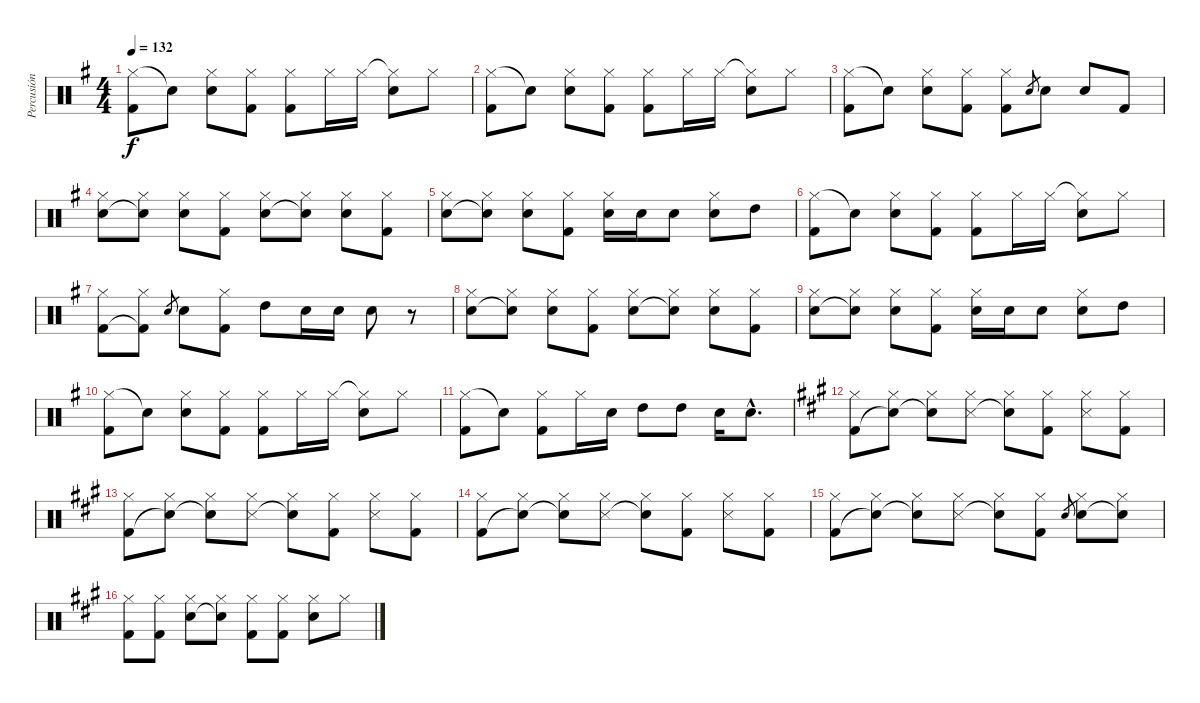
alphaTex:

\track ("Percusión" "Percusión") {instrument percussion}
\staff {score}
\articulation defaults
\ts (4 4)
\tempo 132
\clef neutral
\ks eminor
("Hi-Hat (closed)" "Kick (hit) 2").8{dy f} "Snare (hit)"{t}.8 ("Hi-Hat (closed)" "Electric Snare (hit)").8 ("Hi-Hat (closed)" "Kick (hit) 2").8 ("Hi-Hat (closed)" "Kick (hit) 2").8 "Hi-Hat (closed)".16 "Hi-Hat (closed)".16 ("Hi-Hat (closed)"{t} "Electric Snare (hit)").8 "Hi-Hat (closed)".8 |
("Hi-Hat (closed)" "Kick (hit) 2").8 "Snare (hit)"{t}.8 ("Hi-Hat (closed)" "Electric Snare (hit)").8 ("Hi-Hat (closed)" "Kick (hit) 2").8 ("Hi-Hat (closed)" "Kick (hit) 2").8 "Hi-Hat (closed)".16 "Hi-Hat (closed)".16 ("Hi-Hat (closed)"{t} "Electric Snare (hit)").8 "Hi-Hat (closed)".8 |
("Hi-Hat (closed)" "Kick (hit) 2").8 "Snare (hit)"{t}.8 ("Hi-Hat (closed)" "Electric Snare (hit)").8 ("Hi-Hat (closed)" "Kick (hit) 2").8 ("Hi-Hat (closed)" "Kick (hit) 2").8 "Electric Snare (hit)".8{gr} "Electric Snare (hit)".8 "Electric Snare (hit)".8 "Kick (hit) 2".8 |
("Hi-Hat (closed)" "Electric Snare (hit)").8 ("Hi-Hat (closed)" "Snare (hit)"{t}).8 ("Hi-Hat (closed)" "Electric Snare (hit)").8 ("Hi-Hat (closed)" "Kick (hit) 2").8 ("Hi-Hat (closed)" "Electric Snare (hit)").8 ("Hi-Hat (closed)" "Snare (hit)"{t}).8 ("Hi-Hat (closed)" "Electric Snare (hit)").8 ("Hi-Hat (closed)" "Kick (hit) 2").8 |
("Hi-Hat (closed)" "Electric Snare (hit)").8 ("Hi-Hat (closed)" "Snare (hit)"{t}).8 ("Hi-Hat (closed)" "Electric Snare (hit)").8 ("Hi-Hat (closed)" "Kick (hit) 2").8 ("Hi-Hat (closed)" "Electric Snare (hit)").16 "Electric Snare (hit)".16 "Electric Snare (hit)".8 ("Hi-Hat (closed)" "Electric Snare (hit)").8 "High Tom (hit)".8 |
("Hi-Hat (closed)" "Kick (hit) 2").8 "Snare (hit)"{t}.8 ("Hi-Hat (closed)" "Electric Snare (hit)").8 ("Hi-Hat (closed)" "Kick (hit) 2").8 ("Hi-Hat (closed)" "Kick (hit) 2").8 "Hi-Hat (closed)".16 "Hi-Hat (closed)".16 ("Hi-Hat (closed)"{t} "Electric Snare (hit)").8 "Hi-Hat (closed)".8 |
("Hi-Hat (closed)" "Kick (hit) 2").8 ("Hi-Hat (closed)" "Kick (hit) 2"{t}).8 "Electric Snare (hit)".8{gr} "Electric Snare (hit)".8 ("Hi-Hat (closed)" "Kick (hit) 2").8 "High Tom (hit)".8 "Electric Snare (hit)".16 "Electric Snare (hit)".16 "Electric Snare (hit)".8 r.8 |
("Hi-Hat (closed)" "Electric Snare (hit)").8 ("Hi-Hat (closed)" "Snare (hit)"{t}).8 ("Hi-Hat (closed)" "Electric Snare (hit)").8 ("Hi-Hat (closed)" "Kick (hit) 2").8 ("Hi-Hat (closed)" "Electric Snare (hit)").8 ("Hi-Hat (closed)" "Snare (hit)"{t}).8 ("Hi-Hat (closed)" "Electric Snare (hit)").8 ("Hi-Hat (closed)" "Kick (hit) 2").8 |
("Hi-Hat (closed)" "Electric Snare (hit)").8 ("Hi-Hat (closed)" "Snare (hit)"{t}).8 ("Hi-Hat (closed)" "Electric Snare (hit)").8 ("Hi-Hat (closed)" "Kick (hit) 2").8 ("Hi-Hat (closed)" "Electric Snare (hit)").16 "Electric Snare (hit)".16 "Electric Snare (hit)".8 ("Hi-Hat (closed)" "Electric Snare (hit)").8 "High Tom (hit)".8 |
("Hi-Hat (closed)" "Kick (hit) 2").8 "Snare (hit)"{t}.8 ("Hi-Hat (closed)" "Electric Snare (hit)").8 ("Hi-Hat (closed)" "Kick (hit) 2").8 ("Hi-Hat (closed)" "Kick (hit) 2").8 "Hi-Hat (closed)".16 "Hi-Hat (closed)".16 ("Hi-Hat (closed)"{t} "Electric Snare (hit)").8 "Hi-Hat (closed)".8 |
("Hi-Hat (closed)" "Kick (hit) 2").8 "Snare (hit)"{t}.8 ("Hi-Hat (closed)" "Kick (hit) 2").8 "Hi-Hat (closed)".16 "Electric Snare (hit)".16 "High Tom (hit)".8 "High Tom (hit)".8 "Electric Snare (hit)".16 "Electric Snare (hit)"{hac}.8{d} |
\ks f#minor
("Hi-Hat (closed)" "Kick (hit) 2").8 ("Hi-Hat (closed)" "Snare (hit)"{t}).8 ("Hi-Hat (closed)" "Snare (hit)"{t}).8 ("Hi-Hat (closed)" "Snare (side stick) 3").8 ("Hi-Hat (closed)" "Snare (hit)"{t}).8 ("Hi-Hat (closed)" "Kick (hit) 2").8 ("Hi-Hat (closed)" "Snare (side stick) 3").8 ("Hi-Hat (closed)" "Kick (hit) 2").8 |
("Hi-Hat (closed)" "Kick (hit) 2").8 ("Hi-Hat (closed)" "Snare (hit)"{t}).8 ("Hi-Hat (closed)" "Snare (hit)"{t}).8 ("Hi-Hat (closed)" "Snare (side stick) 3").8 ("Hi-Hat (closed)" "Snare (hit)"{t}).8 ("Hi-Hat (closed)" "Kick (hit) 2").8 ("Hi-Hat (closed)" "Snare (side stick) 3").8 ("Hi-Hat (closed)" "Kick (hit) 2").8 |
("Hi-Hat (closed)" "Kick (hit) 2").8 ("Hi-Hat (closed)" "Snare (hit)"{t}).8 ("Hi-Hat (closed)" "Snare (hit)"{t}).8 ("Hi-Hat (closed)" "Snare (side stick) 3").8 ("Hi-Hat (closed)" "Snare (hit)"{t}).8 ("Hi-Hat (closed)" "Kick (hit) 2").8 ("Hi-Hat (closed)" "Snare (side stick) 3").8 ("Hi-Hat (closed)" "Kick (hit) 2").8 |
("Hi-Hat (closed)" "Kick (hit) 2").8 ("Hi-Hat (closed)" "Snare (hit)"{t}).8 ("Hi-Hat (closed)" "Snare (hit)"{t}).8 ("Hi-Hat (closed)" "Snare (side stick) 3").8 ("Hi-Hat (closed)" "Snare (hit)"{t}).8 ("Hi-Hat (closed)" "Kick (hit) 2").8 "Snare (hit) 2".8{gr} ("Hi-Hat (closed)" "Snare (hit) 2").8 ("Hi-Hat (closed)" "Snare (hit)"{t}).8 |
("Hi-Hat (closed)" "Kick (hit) 2").8 ("Hi-Hat (closed)" "Kick (hit) 2").8 ("Hi-Hat (closed)" "Electric Snare (hit)").8 ("Hi-Hat (closed)" "Snare (hit)"{t}).8 ("Hi-Hat (closed)" "Kick (hit) 2").8 ("Hi-Hat (closed)" "Kick (hit) 2").8 ("Hi-Hat (closed)" "Electric Snare (hit)").8 "Hi-Hat (closed)".8
